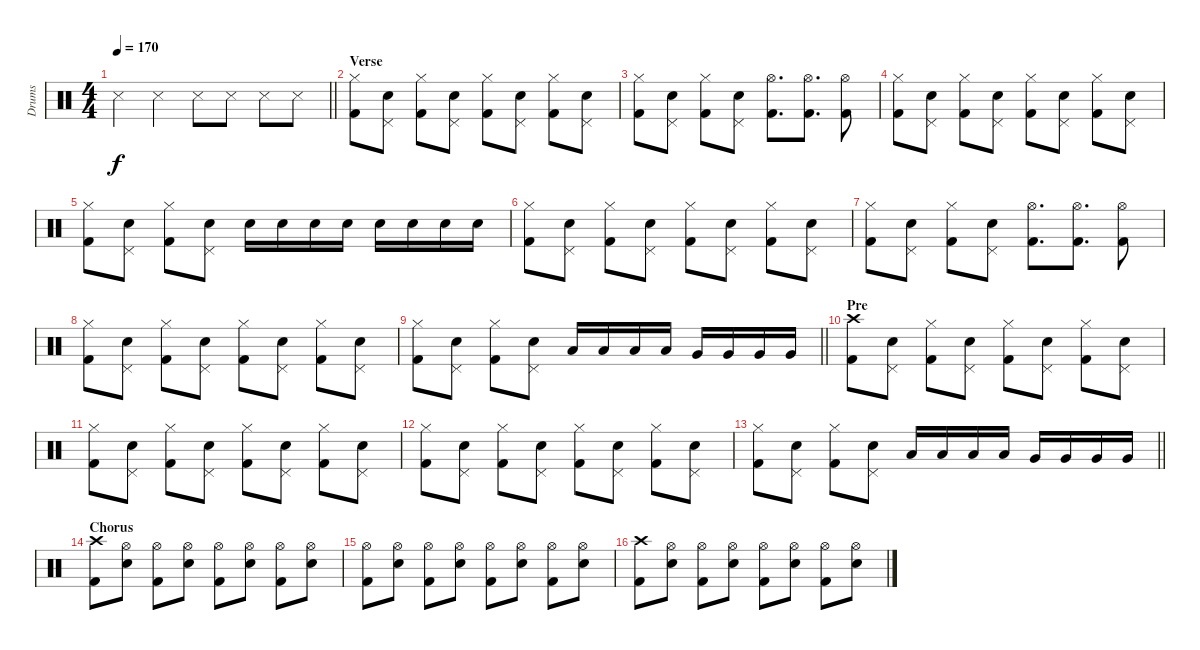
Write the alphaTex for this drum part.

\track ("Drums" "Drums") {instrument percussion}
\staff {score}
\articulation defaults
\ts (4 4)
\tempo 170
\clef neutral
\barLineRight lightlight
\ks c "Metronome (hit)".4{dy f} "Metronome (hit)".4 "Metronome (hit)".8 "Metronome (hit)".8 "Metronome (hit)".8 "Metronome (hit)".8
|
\section ("" "Verse")
("Hi-Hat (closed)" "Kick (hit) 2").8 ("Pedal Hi-Hat (hit)" "Electric Snare (hit)").8 ("Hi-Hat (closed)" "Kick (hit) 2").8 ("Pedal Hi-Hat (hit)" "Electric Snare (hit)").8 ("Hi-Hat (closed)" "Kick (hit) 2").8 ("Pedal Hi-Hat (hit)" "Electric Snare (hit)").8 ("Hi-Hat (closed)" "Kick (hit) 2").8 ("Pedal Hi-Hat (hit)" "Electric Snare (hit)").8 |
("Hi-Hat (closed)" "Kick (hit) 2").8 ("Pedal Hi-Hat (hit)" "Electric Snare (hit)").8 ("Hi-Hat (closed)" "Kick (hit) 2").8 ("Pedal Hi-Hat (hit)" "Electric Snare (hit)").8 ("Hi-Hat (open)" "Kick (hit) 2").8{d} ("Hi-Hat (open)" "Kick (hit) 2").8{d} ("Hi-Hat (open)" "Kick (hit) 2").8 |
("Hi-Hat (closed)" "Kick (hit) 2").8 ("Pedal Hi-Hat (hit)" "Electric Snare (hit)").8 ("Hi-Hat (closed)" "Kick (hit) 2").8 ("Pedal Hi-Hat (hit)" "Electric Snare (hit)").8 ("Hi-Hat (closed)" "Kick (hit) 2").8 ("Pedal Hi-Hat (hit)" "Electric Snare (hit)").8 ("Hi-Hat (closed)" "Kick (hit) 2").8 ("Pedal Hi-Hat (hit)" "Electric Snare (hit)").8 |
("Hi-Hat (closed)" "Kick (hit) 2").8 ("Pedal Hi-Hat (hit)" "Electric Snare (hit)").8 ("Hi-Hat (closed)" "Kick (hit) 2").8 ("Pedal Hi-Hat (hit)" "Electric Snare (hit)").8 "Electric Snare (hit)".16 "Electric Snare (hit)".16 "Electric Snare (hit)".16 "Electric Snare (hit)".16 "Electric Snare (hit)".16 "Electric Snare (hit)".16 "Electric Snare (hit)".16 "Electric Snare (hit)".16 |
("Hi-Hat (closed)" "Kick (hit) 2").8 ("Pedal Hi-Hat (hit)" "Electric Snare (hit)").8 ("Hi-Hat (closed)" "Kick (hit) 2").8 ("Pedal Hi-Hat (hit)" "Electric Snare (hit)").8 ("Hi-Hat (closed)" "Kick (hit) 2").8 ("Pedal Hi-Hat (hit)" "Electric Snare (hit)").8 ("Hi-Hat (closed)" "Kick (hit) 2").8 ("Pedal Hi-Hat (hit)" "Electric Snare (hit)").8 |
("Hi-Hat (closed)" "Kick (hit) 2").8 ("Pedal Hi-Hat (hit)" "Electric Snare (hit)").8 ("Hi-Hat (closed)" "Kick (hit) 2").8 ("Pedal Hi-Hat (hit)" "Electric Snare (hit)").8 ("Hi-Hat (open)" "Kick (hit) 2").8{d} ("Hi-Hat (open)" "Kick (hit) 2").8{d} ("Hi-Hat (open)" "Kick (hit) 2").8 |
("Hi-Hat (closed)" "Kick (hit) 2").8 ("Pedal Hi-Hat (hit)" "Electric Snare (hit)").8 ("Hi-Hat (closed)" "Kick (hit) 2").8 ("Pedal Hi-Hat (hit)" "Electric Snare (hit)").8 ("Hi-Hat (closed)" "Kick (hit) 2").8 ("Pedal Hi-Hat (hit)" "Electric Snare (hit)").8 ("Hi-Hat (closed)" "Kick (hit) 2").8 ("Pedal Hi-Hat (hit)" "Electric Snare (hit)").8 |
\barLineRight lightlight
("Hi-Hat (closed)" "Kick (hit) 2").8 ("Pedal Hi-Hat (hit)" "Electric Snare (hit)").8 ("Hi-Hat (closed)" "Kick (hit) 2").8 ("Pedal Hi-Hat (hit)" "Electric Snare (hit)").8 "Low Tom (hit)".16 "Low Tom (hit)".16 "Low Tom (hit)".16 "Low Tom (hit)".16 "Very Low Tom (hit)".16 "Very Low Tom (hit)".16 "Very Low Tom (hit)".16 "Very Low Tom (hit)".16 |
\section ("" "Pre")
("Crash high (hit)" "Kick (hit) 2").8 ("Pedal Hi-Hat (hit)" "Electric Snare (hit)").8 ("Hi-Hat (closed)" "Kick (hit) 2").8 ("Pedal Hi-Hat (hit)" "Electric Snare (hit)").8 ("Hi-Hat (closed)" "Kick (hit) 2").8 ("Pedal Hi-Hat (hit)" "Electric Snare (hit)").8 ("Hi-Hat (closed)" "Kick (hit) 2").8 ("Pedal Hi-Hat (hit)" "Electric Snare (hit)").8 |
("Hi-Hat (closed)" "Kick (hit) 2").8 ("Pedal Hi-Hat (hit)" "Electric Snare (hit)").8 ("Hi-Hat (closed)" "Kick (hit) 2").8 ("Pedal Hi-Hat (hit)" "Electric Snare (hit)").8 ("Hi-Hat (closed)" "Kick (hit) 2").8 ("Pedal Hi-Hat (hit)" "Electric Snare (hit)").8 ("Hi-Hat (closed)" "Kick (hit) 2").8 ("Pedal Hi-Hat (hit)" "Electric Snare (hit)").8 |
("Hi-Hat (closed)" "Kick (hit) 2").8 ("Pedal Hi-Hat (hit)" "Electric Snare (hit)").8 ("Hi-Hat (closed)" "Kick (hit) 2").8 ("Pedal Hi-Hat (hit)" "Electric Snare (hit)").8 ("Hi-Hat (closed)" "Kick (hit) 2").8 ("Pedal Hi-Hat (hit)" "Electric Snare (hit)").8 ("Hi-Hat (closed)" "Kick (hit) 2").8 ("Pedal Hi-Hat (hit)" "Electric Snare (hit)").8 |
\barLineRight lightlight
("Hi-Hat (closed)" "Kick (hit) 2").8 ("Pedal Hi-Hat (hit)" "Electric Snare (hit)").8 ("Hi-Hat (closed)" "Kick (hit) 2").8 ("Pedal Hi-Hat (hit)" "Electric Snare (hit)").8 "Low Tom (hit)".16 "Low Tom (hit)".16 "Low Tom (hit)".16 "Low Tom (hit)".16 "Very Low Tom (hit)".16 "Very Low Tom (hit)".16 "Very Low Tom (hit)".16 "Very Low Tom (hit)".16 |
\section ("" "Chorus")
("Crash high (hit)" "Kick (hit) 2").8 ("Hi-Hat (open)" "Electric Snare (hit)").8 ("Hi-Hat (open)" "Kick (hit) 2").8 ("Hi-Hat (open)" "Electric Snare (hit)").8 ("Hi-Hat (open)" "Kick (hit) 2").8 ("Hi-Hat (open)" "Electric Snare (hit)").8 ("Hi-Hat (open)" "Kick (hit) 2").8 ("Hi-Hat (open)" "Electric Snare (hit)").8 |
("Hi-Hat (open)" "Kick (hit) 2").8 ("Hi-Hat (open)" "Electric Snare (hit)").8 ("Hi-Hat (open)" "Kick (hit) 2").8 ("Hi-Hat (open)" "Electric Snare (hit)").8 ("Hi-Hat (open)" "Kick (hit) 2").8 ("Hi-Hat (open)" "Electric Snare (hit)").8 ("Hi-Hat (open)" "Kick (hit) 2").8 ("Hi-Hat (open)" "Electric Snare (hit)").8 |
("Crash high (hit)" "Kick (hit) 2").8 ("Hi-Hat (open)" "Electric Snare (hit)").8 ("Hi-Hat (open)" "Kick (hit) 2").8 ("Hi-Hat (open)" "Electric Snare (hit)").8 ("Hi-Hat (open)" "Kick (hit) 2").8 ("Hi-Hat (open)" "Electric Snare (hit)").8 ("Hi-Hat (open)" "Kick (hit) 2").8 ("Hi-Hat (open)" "Electric Snare (hit)").8
